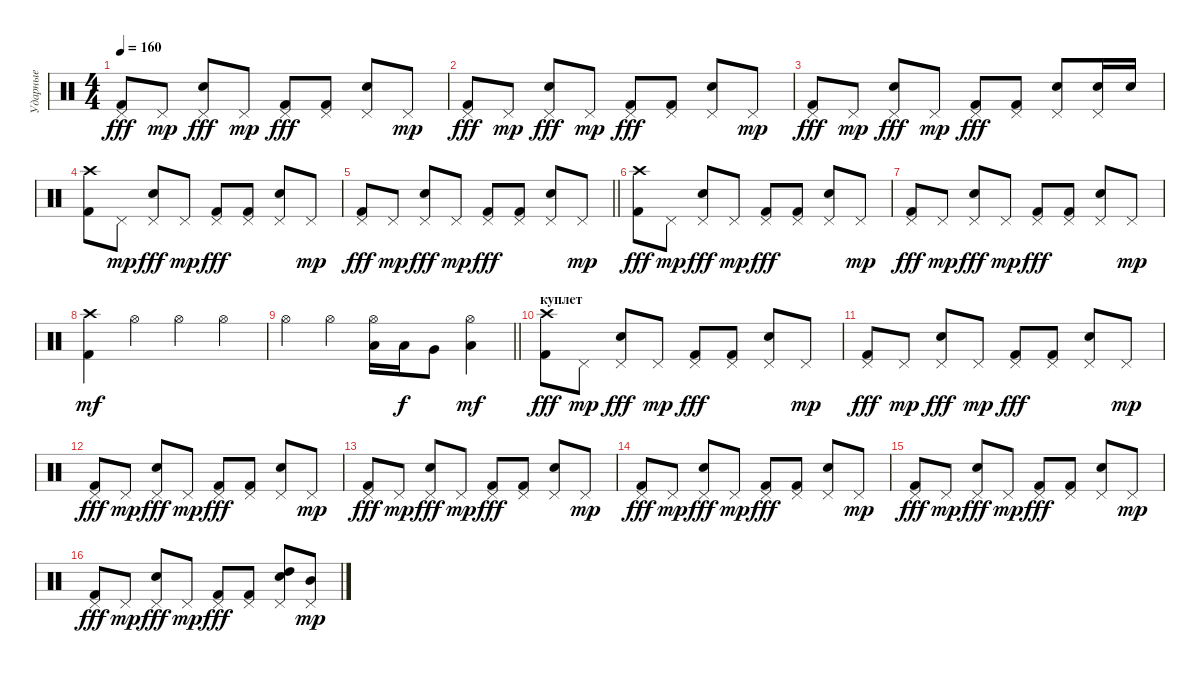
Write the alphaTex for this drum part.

\track ("Ударные" "Ударные") {instrument percussion}
\staff {score}
\articulation defaults
\ts (4 4)
\tempo 160
\clef neutral
\ks c
("Pedal Hi-Hat (hit)" "Kick (hit) 2").8{dy fff} "Pedal Hi-Hat (hit)".8{dy mp} ("Pedal Hi-Hat (hit)" "Electric Snare (hit)").8{dy fff} "Pedal Hi-Hat (hit)".8{dy mp} ("Pedal Hi-Hat (hit)" "Kick (hit) 2").8{dy fff} ("Pedal Hi-Hat (hit)" "Kick (hit) 2").8 ("Pedal Hi-Hat (hit)" "Electric Snare (hit)").8 "Pedal Hi-Hat (hit)".8{dy mp} |
("Pedal Hi-Hat (hit)" "Kick (hit) 2").8{dy fff} "Pedal Hi-Hat (hit)".8{dy mp} ("Pedal Hi-Hat (hit)" "Electric Snare (hit)").8{dy fff} "Pedal Hi-Hat (hit)".8{dy mp} ("Pedal Hi-Hat (hit)" "Kick (hit) 2").8{dy fff} ("Pedal Hi-Hat (hit)" "Kick (hit) 2").8 ("Pedal Hi-Hat (hit)" "Electric Snare (hit)").8 "Pedal Hi-Hat (hit)".8{dy mp} |
("Pedal Hi-Hat (hit)" "Kick (hit) 2").8{dy fff} "Pedal Hi-Hat (hit)".8{dy mp} ("Pedal Hi-Hat (hit)" "Electric Snare (hit)").8{dy fff} "Pedal Hi-Hat (hit)".8{dy mp} ("Pedal Hi-Hat (hit)" "Kick (hit) 2").8{dy fff} ("Pedal Hi-Hat (hit)" "Kick (hit) 2").8 ("Pedal Hi-Hat (hit)" "Electric Snare (hit)").8 ("Pedal Hi-Hat (hit)" "Electric Snare (hit)").16 "Electric Snare (hit)".16 |
("Crash high (hit)" "Kick (hit) 2").8 "Pedal Hi-Hat (hit)".8{dy mp} ("Pedal Hi-Hat (hit)" "Electric Snare (hit)").8{dy fff} "Pedal Hi-Hat (hit)".8{dy mp} ("Pedal Hi-Hat (hit)" "Kick (hit) 2").8{dy fff} ("Pedal Hi-Hat (hit)" "Kick (hit) 2").8 ("Pedal Hi-Hat (hit)" "Electric Snare (hit)").8 "Pedal Hi-Hat (hit)".8{dy mp} |
\barLineRight lightlight
("Pedal Hi-Hat (hit)" "Kick (hit) 2").8{dy fff} "Pedal Hi-Hat (hit)".8{dy mp} ("Pedal Hi-Hat (hit)" "Electric Snare (hit)").8{dy fff} "Pedal Hi-Hat (hit)".8{dy mp} ("Pedal Hi-Hat (hit)" "Kick (hit) 2").8{dy fff} ("Pedal Hi-Hat (hit)" "Kick (hit) 2").8 ("Pedal Hi-Hat (hit)" "Electric Snare (hit)").8 "Pedal Hi-Hat (hit)".8{dy mp} |
\section ("" "")
("Crash high (hit)" "Kick (hit) 2").8{dy fff} "Pedal Hi-Hat (hit)".8{dy mp} ("Pedal Hi-Hat (hit)" "Electric Snare (hit)").8{dy fff} "Pedal Hi-Hat (hit)".8{dy mp} ("Pedal Hi-Hat (hit)" "Kick (hit) 2").8{dy fff} ("Pedal Hi-Hat (hit)" "Kick (hit) 2").8 ("Pedal Hi-Hat (hit)" "Electric Snare (hit)").8 "Pedal Hi-Hat (hit)".8{dy mp} |
("Pedal Hi-Hat (hit)" "Kick (hit) 2").8{dy fff} "Pedal Hi-Hat (hit)".8{dy mp} ("Pedal Hi-Hat (hit)" "Electric Snare (hit)").8{dy fff} "Pedal Hi-Hat (hit)".8{dy mp} ("Pedal Hi-Hat (hit)" "Kick (hit) 2").8{dy fff} ("Pedal Hi-Hat (hit)" "Kick (hit) 2").8 ("Pedal Hi-Hat (hit)" "Electric Snare (hit)").8 "Pedal Hi-Hat (hit)".8{dy mp} |
("Kick (hit) 2" "Crash high (hit)").4{dy mf} "Hi-Hat (open)".4 "Hi-Hat (open)".4 "Hi-Hat (open)".4 |
\barLineRight lightlight "Hi-Hat (open)".4 "Hi-Hat (open)".4
("Low Tom (hit)" "Hi-Hat (open)").16 "Low Tom (hit)".16{dy f} "Very Low Tom (hit)".8 ("Low Floor Tom (hit)" "Hi-Hat (open)").4{dy mf} |
\section ("" "куплет")
("Crash high (hit)" "Kick (hit) 2").8{dy fff} "Pedal Hi-Hat (hit)".8{dy mp} ("Pedal Hi-Hat (hit)" "Electric Snare (hit)").8{dy fff} "Pedal Hi-Hat (hit)".8{dy mp} ("Pedal Hi-Hat (hit)" "Kick (hit) 2").8{dy fff} ("Pedal Hi-Hat (hit)" "Kick (hit) 2").8 ("Pedal Hi-Hat (hit)" "Electric Snare (hit)").8 "Pedal Hi-Hat (hit)".8{dy mp} |
("Pedal Hi-Hat (hit)" "Kick (hit) 2").8{dy fff} "Pedal Hi-Hat (hit)".8{dy mp} ("Pedal Hi-Hat (hit)" "Electric Snare (hit)").8{dy fff} "Pedal Hi-Hat (hit)".8{dy mp} ("Pedal Hi-Hat (hit)" "Kick (hit) 2").8{dy fff} ("Pedal Hi-Hat (hit)" "Kick (hit) 2").8 ("Pedal Hi-Hat (hit)" "Electric Snare (hit)").8 "Pedal Hi-Hat (hit)".8{dy mp} |
("Pedal Hi-Hat (hit)" "Kick (hit) 2").8{dy fff} "Pedal Hi-Hat (hit)".8{dy mp} ("Pedal Hi-Hat (hit)" "Electric Snare (hit)").8{dy fff} "Pedal Hi-Hat (hit)".8{dy mp} ("Pedal Hi-Hat (hit)" "Kick (hit) 2").8{dy fff} ("Pedal Hi-Hat (hit)" "Kick (hit) 2").8 ("Pedal Hi-Hat (hit)" "Electric Snare (hit)").8 "Pedal Hi-Hat (hit)".8{dy mp} |
("Pedal Hi-Hat (hit)" "Kick (hit) 2").8{dy fff} "Pedal Hi-Hat (hit)".8{dy mp} ("Pedal Hi-Hat (hit)" "Electric Snare (hit)").8{dy fff} "Pedal Hi-Hat (hit)".8{dy mp} ("Pedal Hi-Hat (hit)" "Kick (hit) 2").8{dy fff} ("Pedal Hi-Hat (hit)" "Kick (hit) 2").8 ("Pedal Hi-Hat (hit)" "Electric Snare (hit)").8 "Pedal Hi-Hat (hit)".8{dy mp} |
("Pedal Hi-Hat (hit)" "Kick (hit) 2").8{dy fff} "Pedal Hi-Hat (hit)".8{dy mp} ("Pedal Hi-Hat (hit)" "Electric Snare (hit)").8{dy fff} "Pedal Hi-Hat (hit)".8{dy mp} ("Pedal Hi-Hat (hit)" "Kick (hit) 2").8{dy fff} ("Pedal Hi-Hat (hit)" "Kick (hit) 2").8 ("Pedal Hi-Hat (hit)" "Electric Snare (hit)").8 "Pedal Hi-Hat (hit)".8{dy mp} |
("Pedal Hi-Hat (hit)" "Kick (hit) 2").8{dy fff} "Pedal Hi-Hat (hit)".8{dy mp} ("Pedal Hi-Hat (hit)" "Electric Snare (hit)").8{dy fff} "Pedal Hi-Hat (hit)".8{dy mp} ("Pedal Hi-Hat (hit)" "Kick (hit) 2").8{dy fff} ("Pedal Hi-Hat (hit)" "Kick (hit) 2").8 ("Pedal Hi-Hat (hit)" "Electric Snare (hit)").8 "Pedal Hi-Hat (hit)".8{dy mp} |
("Pedal Hi-Hat (hit)" "Kick (hit) 2").8{dy fff} "Pedal Hi-Hat (hit)".8{dy mp} ("Pedal Hi-Hat (hit)" "Electric Snare (hit)").8{dy fff} "Pedal Hi-Hat (hit)".8{dy mp} ("Pedal Hi-Hat (hit)" "Kick (hit) 2").8{dy fff} ("Pedal Hi-Hat (hit)" "Kick (hit) 2").8 ("Pedal Hi-Hat (hit)" "Electric Snare (hit)" "High Tom (hit)").8 ("Pedal Hi-Hat (hit)" "Mid Tom (hit)").8{dy mp}
